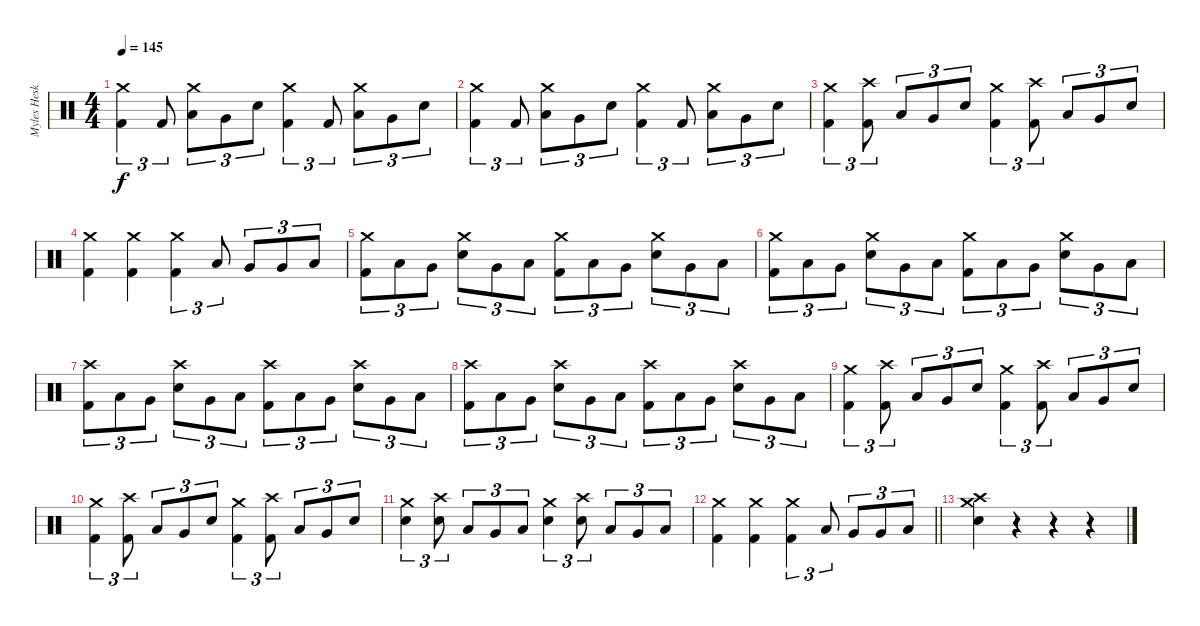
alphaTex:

\track ("Myles Heskett" "Myles Hesk") {instrument percussion}
\staff {score}
\articulation defaults
\ts (4 4)
\tempo 145
\clef neutral
\ks c
("Crash medium (hit)" "Kick (hit) 2").4{tu (3 2) dy f} "Kick (hit) 2".8{tu (3 2)} ("Crash medium (hit)" "Low Tom (hit)").8{tu (3 2)} "Very Low Tom (hit)".8{tu (3 2)} "Snare (hit) 2".8{tu (3 2)} ("Crash medium (hit)" "Kick (hit) 2").4{tu (3 2)} "Kick (hit) 2".8{tu (3 2)} ("Crash medium (hit)" "Low Tom (hit)").8{tu (3 2)} "Very Low Tom (hit)".8{tu (3 2)} "Snare (hit) 2".8{tu (3 2)} |
("Crash medium (hit)" "Kick (hit) 2").4{tu (3 2)} "Kick (hit) 2".8{tu (3 2)} ("Crash medium (hit)" "Low Tom (hit)").8{tu (3 2)} "Very Low Tom (hit)".8{tu (3 2)} "Snare (hit) 2".8{tu (3 2)} ("Crash medium (hit)" "Kick (hit) 2").4{tu (3 2)} "Kick (hit) 2".8{tu (3 2)} ("Crash medium (hit)" "Low Tom (hit)").8{tu (3 2)} "Very Low Tom (hit)".8{tu (3 2)} "Snare (hit) 2".8{tu (3 2)} |
("Crash medium (hit)" "Kick (hit) 2").4{tu (3 2)} ("Crash high (hit)" "Kick (hit) 2").8{tu (3 2)} "Low Tom (hit)".8{tu (3 2)} "Very Low Tom (hit)".8{tu (3 2)} "Snare (hit) 2".8{tu (3 2)} ("Crash medium (hit)" "Kick (hit) 2").4{tu (3 2)} ("Crash high (hit)" "Kick (hit) 2").8{tu (3 2)} "Low Tom (hit)".8{tu (3 2)} "Very Low Tom (hit)".8{tu (3 2)} "Snare (hit) 2".8{tu (3 2)} |
("Crash medium (hit)" "Kick (hit) 2").4 ("Crash medium (hit)" "Kick (hit) 2").4 ("Crash medium (hit)" "Kick (hit) 2").4{tu (3 2)} "Low Tom (hit)".8{tu (3 2)} "Very Low Tom (hit)".8{tu (3 2)} "Very Low Tom (hit)".8{tu (3 2)} "Low Tom (hit)".8{tu (3 2)} |
("Crash medium (hit)" "Kick (hit) 2").8{tu (3 2)} "Low Tom (hit)".8{tu (3 2)} "Very Low Tom (hit)".8{tu (3 2)} ("Crash medium (hit)" "Snare (hit) 2").8{tu (3 2)} "Very Low Tom (hit)".8{tu (3 2)} "Low Tom (hit)".8{tu (3 2)} ("Crash medium (hit)" "Kick (hit) 2").8{tu (3 2)} "Low Tom (hit)".8{tu (3 2)} "Very Low Tom (hit)".8{tu (3 2)} ("Crash medium (hit)" "Snare (hit) 2").8{tu (3 2)} "Very Low Tom (hit)".8{tu (3 2)} "Low Tom (hit)".8{tu (3 2)} |
("Crash medium (hit)" "Kick (hit) 2").8{tu (3 2)} "Low Tom (hit)".8{tu (3 2)} "Very Low Tom (hit)".8{tu (3 2)} ("Crash medium (hit)" "Snare (hit) 2").8{tu (3 2)} "Very Low Tom (hit)".8{tu (3 2)} "Low Tom (hit)".8{tu (3 2)} ("Crash medium (hit)" "Kick (hit) 2").8{tu (3 2)} "Low Tom (hit)".8{tu (3 2)} "Very Low Tom (hit)".8{tu (3 2)} ("Crash medium (hit)" "Snare (hit) 2").8{tu (3 2)} "Very Low Tom (hit)".8{tu (3 2)} "Low Tom (hit)".8{tu (3 2)} |
("Crash high (hit)" "Kick (hit) 2").8{tu (3 2)} "Low Tom (hit)".8{tu (3 2)} "Very Low Tom (hit)".8{tu (3 2)} ("Crash high (hit)" "Snare (hit) 2").8{tu (3 2)} "Very Low Tom (hit)".8{tu (3 2)} "Low Tom (hit)".8{tu (3 2)} ("Crash high (hit)" "Kick (hit) 2").8{tu (3 2)} "Low Tom (hit)".8{tu (3 2)} "Very Low Tom (hit)".8{tu (3 2)} ("Crash high (hit)" "Snare (hit) 2").8{tu (3 2)} "Very Low Tom (hit)".8{tu (3 2)} "Low Tom (hit)".8{tu (3 2)} |
("Crash high (hit)" "Kick (hit) 2").8{tu (3 2)} "Low Tom (hit)".8{tu (3 2)} "Very Low Tom (hit)".8{tu (3 2)} ("Crash high (hit)" "Snare (hit) 2").8{tu (3 2)} "Very Low Tom (hit)".8{tu (3 2)} "Low Tom (hit)".8{tu (3 2)} ("Crash high (hit)" "Kick (hit) 2").8{tu (3 2)} "Low Tom (hit)".8{tu (3 2)} "Very Low Tom (hit)".8{tu (3 2)} ("Crash high (hit)" "Snare (hit) 2").8{tu (3 2)} "Very Low Tom (hit)".8{tu (3 2)} "Low Tom (hit)".8{tu (3 2)} |
("Crash medium (hit)" "Kick (hit) 2").4{tu (3 2)} ("Crash high (hit)" "Kick (hit) 2").8{tu (3 2)} "Low Tom (hit)".8{tu (3 2)} "Very Low Tom (hit)".8{tu (3 2)} "Snare (hit) 2".8{tu (3 2)} ("Crash medium (hit)" "Kick (hit) 2").4{tu (3 2)} ("Crash high (hit)" "Kick (hit) 2").8{tu (3 2)} "Low Tom (hit)".8{tu (3 2)} "Very Low Tom (hit)".8{tu (3 2)} "Snare (hit) 2".8{tu (3 2)} |
("Crash medium (hit)" "Kick (hit) 2").4{tu (3 2)} ("Crash high (hit)" "Kick (hit) 2").8{tu (3 2)} "Low Tom (hit)".8{tu (3 2)} "Very Low Tom (hit)".8{tu (3 2)} "Snare (hit) 2".8{tu (3 2)} ("Crash medium (hit)" "Kick (hit) 2").4{tu (3 2)} ("Crash high (hit)" "Kick (hit) 2").8{tu (3 2)} "Low Tom (hit)".8{tu (3 2)} "Very Low Tom (hit)".8{tu (3 2)} "Snare (hit) 2".8{tu (3 2)} |
("Crash medium (hit)" "Snare (hit) 2").4{tu (3 2)} ("Crash high (hit)" "Snare (hit) 2").8{tu (3 2)} "Low Tom (hit)".8{tu (3 2)} "Very Low Tom (hit)".8{tu (3 2)} "Low Floor Tom (hit)".8{tu (3 2)} ("Crash medium (hit)" "Snare (hit) 2").4{tu (3 2)} ("Crash high (hit)" "Snare (hit) 2").8{tu (3 2)} "Low Tom (hit)".8{tu (3 2)} "Very Low Tom (hit)".8{tu (3 2)} "Low Floor Tom (hit)".8{tu (3 2)} |
\barLineRight lightlight
("Crash medium (hit)" "Kick (hit) 2").4 ("Crash medium (hit)" "Kick (hit) 2").4 ("Crash medium (hit)" "Kick (hit) 2").4{tu (3 2)} "Low Tom (hit)".8{tu (3 2)} "Very Low Tom (hit)".8{tu (3 2)} "Very Low Tom (hit)".8{tu (3 2)} "Low Tom (hit)".8{tu (3 2)} |
("Crash medium (hit)" "Crash high (hit)" "Snare (hit) 2").4 r.4 r.4 r.4
